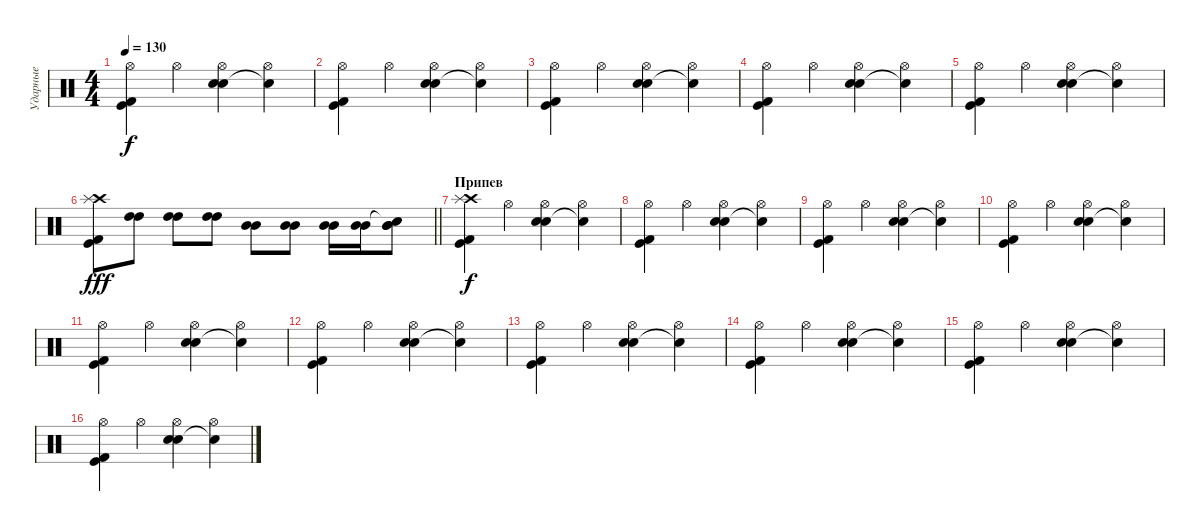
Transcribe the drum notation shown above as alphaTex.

\track ("Ударные" "Ударные") {instrument percussion}
\staff {score}
\articulation defaults
\ts (4 4)
\tempo 130
\clef neutral
\ks c
("Hi-Hat (open)" "Kick (hit)" "Kick (hit) 2").4{dy f} "Hi-Hat (open)".4 ("Hi-Hat (open)" "Electric Snare (hit)" "Snare (hit) 2").4 ("Hi-Hat (open)" "Snare (hit)"{t}).4 |
("Hi-Hat (open)" "Kick (hit)" "Kick (hit) 2").4 "Hi-Hat (open)".4 ("Hi-Hat (open)" "Electric Snare (hit)" "Snare (hit) 2").4 ("Hi-Hat (open)" "Snare (hit)"{t}).4 |
("Hi-Hat (open)" "Kick (hit)" "Kick (hit) 2").4 "Hi-Hat (open)".4 ("Hi-Hat (open)" "Electric Snare (hit)" "Snare (hit) 2").4 ("Hi-Hat (open)" "Snare (hit)"{t}).4 |
("Hi-Hat (open)" "Kick (hit)" "Kick (hit) 2").4 "Hi-Hat (open)".4 ("Hi-Hat (open)" "Electric Snare (hit)" "Snare (hit) 2").4 ("Hi-Hat (open)" "Snare (hit)"{t}).4 |
("Hi-Hat (open)" "Kick (hit)" "Kick (hit) 2").4 "Hi-Hat (open)".4 ("Hi-Hat (open)" "Electric Snare (hit)" "Snare (hit) 2").4 ("Hi-Hat (open)" "Snare (hit)"{t}).4 |
\barLineRight lightlight
("Crash high (hit)" "Splash (hit)" "Kick (hit)" "Kick (hit) 2").8{dy fff} ("High Tom (hit)" "High Tom (hit)").8 ("High Tom (hit)" "High Tom (hit)").8 ("High Tom (hit)" "High Tom (hit)").8 ("Mid Tom (hit)" "Mid Tom (hit)").8 ("Mid Tom (hit)" "Mid Tom (hit)").8 ("Mid Tom (hit)" "Mid Tom (hit)").16 ("Mid Tom (hit)" "Mid Tom (hit)").16 ("Snare (hit)"{t} "Mid Tom (hit)" "Mid Tom (hit)").8 |
\section ("" "Припев")
("Crash high (hit)" "Splash (hit)" "Kick (hit)" "Kick (hit) 2").4{dy f} "Hi-Hat (open)".4 ("Hi-Hat (open)" "Electric Snare (hit)" "Snare (hit) 2").4 ("Hi-Hat (open)" "Snare (hit)"{t}).4 |
("Hi-Hat (open)" "Kick (hit)" "Kick (hit) 2").4 "Hi-Hat (open)".4 ("Hi-Hat (open)" "Electric Snare (hit)" "Snare (hit) 2").4 ("Hi-Hat (open)" "Snare (hit)"{t}).4 |
("Hi-Hat (open)" "Kick (hit)" "Kick (hit) 2").4 "Hi-Hat (open)".4 ("Hi-Hat (open)" "Electric Snare (hit)" "Snare (hit) 2").4 ("Hi-Hat (open)" "Snare (hit)"{t}).4 |
("Hi-Hat (open)" "Kick (hit)" "Kick (hit) 2").4 "Hi-Hat (open)".4 ("Hi-Hat (open)" "Electric Snare (hit)" "Snare (hit) 2").4 ("Hi-Hat (open)" "Snare (hit)"{t}).4 |
("Hi-Hat (open)" "Kick (hit)" "Kick (hit) 2").4 "Hi-Hat (open)".4 ("Hi-Hat (open)" "Electric Snare (hit)" "Snare (hit) 2").4 ("Hi-Hat (open)" "Snare (hit)"{t}).4 |
("Hi-Hat (open)" "Kick (hit)" "Kick (hit) 2").4 "Hi-Hat (open)".4 ("Hi-Hat (open)" "Electric Snare (hit)" "Snare (hit) 2").4 ("Hi-Hat (open)" "Snare (hit)"{t}).4 |
("Hi-Hat (open)" "Kick (hit)" "Kick (hit) 2").4 "Hi-Hat (open)".4 ("Hi-Hat (open)" "Electric Snare (hit)" "Snare (hit) 2").4 ("Hi-Hat (open)" "Snare (hit)"{t}).4 |
("Hi-Hat (open)" "Kick (hit)" "Kick (hit) 2").4 "Hi-Hat (open)".4 ("Hi-Hat (open)" "Electric Snare (hit)" "Snare (hit) 2").4 ("Hi-Hat (open)" "Snare (hit)"{t}).4 |
("Hi-Hat (open)" "Kick (hit)" "Kick (hit) 2").4 "Hi-Hat (open)".4 ("Hi-Hat (open)" "Electric Snare (hit)" "Snare (hit) 2").4 ("Hi-Hat (open)" "Snare (hit)"{t}).4 |
("Hi-Hat (open)" "Kick (hit)" "Kick (hit) 2").4 "Hi-Hat (open)".4 ("Hi-Hat (open)" "Electric Snare (hit)" "Snare (hit) 2").4 ("Hi-Hat (open)" "Snare (hit)"{t}).4
